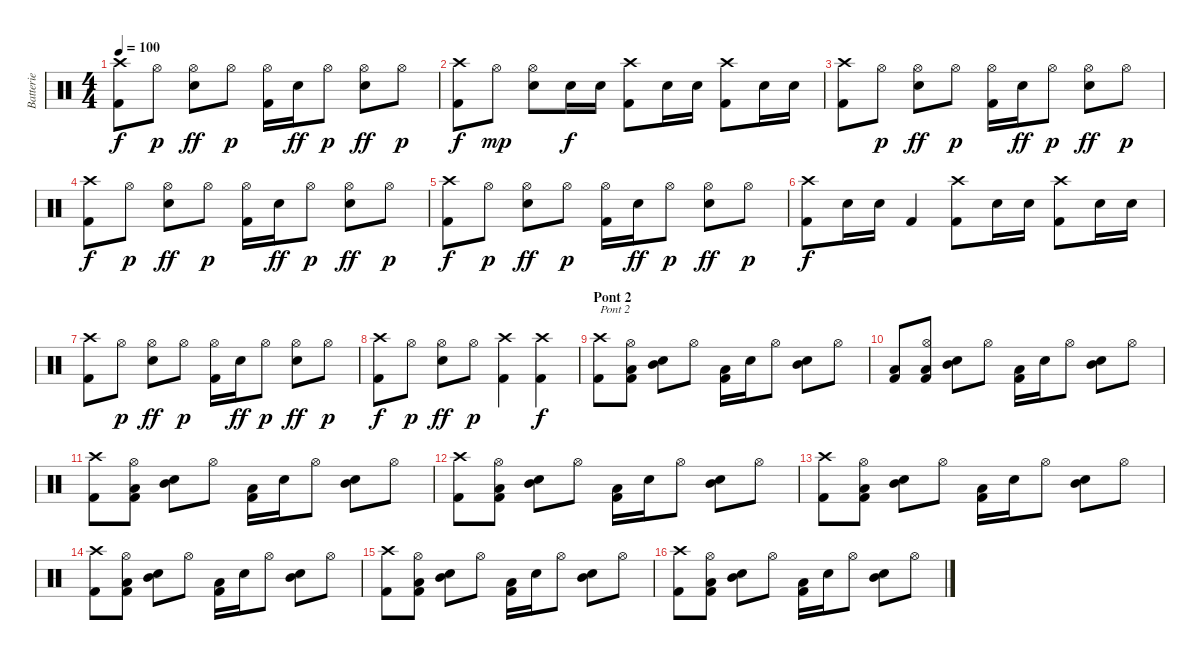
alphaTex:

\track ("Batterie" "Batterie") {instrument percussion}
\staff {score}
\articulation defaults
\ts (4 4)
\tempo 100
\clef neutral
\ks c
("Crash high (hit)" "Kick (hit) 2").8{dy f} "Hi-Hat (open)".8{dy p} ("Hi-Hat (open)" "Electric Snare (hit)").8{dy ff} "Hi-Hat (open)".8{dy p} ("Hi-Hat (open)" "Kick (hit) 2").16 "Electric Snare (hit)".16{dy ff} "Hi-Hat (open)".8{dy p} ("Hi-Hat (open)" "Electric Snare (hit)").8{dy ff} "Hi-Hat (open)".8{dy p} |
("Crash high (hit)" "Kick (hit) 2").8{dy f} "Hi-Hat (open)".8{dy mp} ("Hi-Hat (open)" "Electric Snare (hit)").8 "Electric Snare (hit)".16{dy f} "Electric Snare (hit)".16 ("Crash high (hit)" "Kick (hit) 2").8 "Electric Snare (hit)".16 "Electric Snare (hit)".16 ("Crash high (hit)" "Kick (hit) 2").8 "Electric Snare (hit)".16 "Electric Snare (hit)".16 |
("Crash high (hit)" "Kick (hit) 2").8 "Hi-Hat (open)".8{dy p} ("Hi-Hat (open)" "Electric Snare (hit)").8{dy ff} "Hi-Hat (open)".8{dy p} ("Hi-Hat (open)" "Kick (hit) 2").16 "Electric Snare (hit)".16{dy ff} "Hi-Hat (open)".8{dy p} ("Hi-Hat (open)" "Electric Snare (hit)").8{dy ff} "Hi-Hat (open)".8{dy p} |
("Crash high (hit)" "Kick (hit) 2").8{dy f} "Hi-Hat (open)".8{dy p} ("Hi-Hat (open)" "Electric Snare (hit)").8{dy ff} "Hi-Hat (open)".8{dy p} ("Hi-Hat (open)" "Kick (hit) 2").16 "Electric Snare (hit)".16{dy ff} "Hi-Hat (open)".8{dy p} ("Hi-Hat (open)" "Electric Snare (hit)").8{dy ff} "Hi-Hat (open)".8{dy p} |
("Crash high (hit)" "Kick (hit) 2").8{dy f} "Hi-Hat (open)".8{dy p} ("Hi-Hat (open)" "Electric Snare (hit)").8{dy ff} "Hi-Hat (open)".8{dy p} ("Hi-Hat (open)" "Kick (hit) 2").16 "Electric Snare (hit)".16{dy ff} "Hi-Hat (open)".8{dy p} ("Hi-Hat (open)" "Electric Snare (hit)").8{dy ff} "Hi-Hat (open)".8{dy p} |
("Crash high (hit)" "Kick (hit) 2").8{dy f} "Electric Snare (hit)".16 "Electric Snare (hit)".16 "Kick (hit) 2".4 ("Crash high (hit)" "Kick (hit) 2").8 "Electric Snare (hit)".16 "Electric Snare (hit)".16 ("Crash high (hit)" "Kick (hit) 2").8 "Electric Snare (hit)".16 "Electric Snare (hit)".16 |
("Crash high (hit)" "Kick (hit) 2").8 "Hi-Hat (open)".8{dy p} ("Hi-Hat (open)" "Electric Snare (hit)").8{dy ff} "Hi-Hat (open)".8{dy p} ("Hi-Hat (open)" "Kick (hit) 2").16 "Electric Snare (hit)".16{dy ff} "Hi-Hat (open)".8{dy p} ("Hi-Hat (open)" "Electric Snare (hit)").8{dy ff} "Hi-Hat (open)".8{dy p} |
("Crash high (hit)" "Kick (hit) 2").8{dy f} "Hi-Hat (open)".8{dy p} ("Hi-Hat (open)" "Electric Snare (hit)").8{dy ff} "Hi-Hat (open)".8{dy p} ("Crash high (hit)" "Kick (hit) 2").4 ("Crash high (hit)" "Kick (hit) 2").4{dy f} |
\section ("" "Pont 2")
("Crash high (hit)" "Kick (hit) 2").8{txt "Pont 2"} ("Hi-Hat (open)" "Low Floor Tom (hit)" "Kick (hit) 2").8 ("Mid Tom (hit)" "Snare (hit) 2").8 "Hi-Hat (open)".8 ("Low Floor Tom (hit)" "Kick (hit) 2").16 "Electric Snare (hit)".16 "Hi-Hat (open)".8 ("Mid Tom (hit)" "Snare (hit) 2").8 "Hi-Hat (open)".8 |
("Low Floor Tom (hit)" "Kick (hit) 2").8 ("Hi-Hat (open)" "Low Floor Tom (hit)" "Kick (hit) 2").8 ("Mid Tom (hit)" "Snare (hit) 2").8 "Hi-Hat (open)".8 ("Low Floor Tom (hit)" "Kick (hit) 2").16 "Electric Snare (hit)".16 "Hi-Hat (open)".8 ("Mid Tom (hit)" "Snare (hit) 2").8 "Hi-Hat (open)".8 |
("Crash high (hit)" "Kick (hit) 2").8 ("Hi-Hat (open)" "Low Floor Tom (hit)" "Kick (hit) 2").8 ("Mid Tom (hit)" "Snare (hit) 2").8 "Hi-Hat (open)".8 ("Low Floor Tom (hit)" "Kick (hit) 2").16 "Electric Snare (hit)".16 "Hi-Hat (open)".8 ("Mid Tom (hit)" "Snare (hit) 2").8 "Hi-Hat (open)".8 |
("Crash high (hit)" "Kick (hit) 2").8 ("Hi-Hat (open)" "Low Floor Tom (hit)" "Kick (hit) 2").8 ("Mid Tom (hit)" "Snare (hit) 2").8 "Hi-Hat (open)".8 ("Low Floor Tom (hit)" "Kick (hit) 2").16 "Electric Snare (hit)".16 "Hi-Hat (open)".8 ("Mid Tom (hit)" "Snare (hit) 2").8 "Hi-Hat (open)".8 |
("Crash high (hit)" "Kick (hit) 2").8 ("Hi-Hat (open)" "Low Floor Tom (hit)" "Kick (hit) 2").8 ("Mid Tom (hit)" "Snare (hit) 2").8 "Hi-Hat (open)".8 ("Low Floor Tom (hit)" "Kick (hit) 2").16 "Electric Snare (hit)".16 "Hi-Hat (open)".8 ("Mid Tom (hit)" "Snare (hit) 2").8 "Hi-Hat (open)".8 |
("Crash high (hit)" "Kick (hit) 2").8 ("Hi-Hat (open)" "Low Floor Tom (hit)" "Kick (hit) 2").8 ("Mid Tom (hit)" "Snare (hit) 2").8 "Hi-Hat (open)".8 ("Low Floor Tom (hit)" "Kick (hit) 2").16 "Electric Snare (hit)".16 "Hi-Hat (open)".8 ("Mid Tom (hit)" "Snare (hit) 2").8 "Hi-Hat (open)".8 |
("Crash high (hit)" "Kick (hit) 2").8 ("Hi-Hat (open)" "Low Floor Tom (hit)" "Kick (hit) 2").8 ("Mid Tom (hit)" "Snare (hit) 2").8 "Hi-Hat (open)".8 ("Low Floor Tom (hit)" "Kick (hit) 2").16 "Electric Snare (hit)".16 "Hi-Hat (open)".8 ("Mid Tom (hit)" "Snare (hit) 2").8 "Hi-Hat (open)".8 |
("Crash high (hit)" "Kick (hit) 2").8 ("Hi-Hat (open)" "Low Floor Tom (hit)" "Kick (hit) 2").8 ("Mid Tom (hit)" "Snare (hit) 2").8 "Hi-Hat (open)".8 ("Low Floor Tom (hit)" "Kick (hit) 2").16 "Electric Snare (hit)".16 "Hi-Hat (open)".8 ("Mid Tom (hit)" "Snare (hit) 2").8 "Hi-Hat (open)".8
